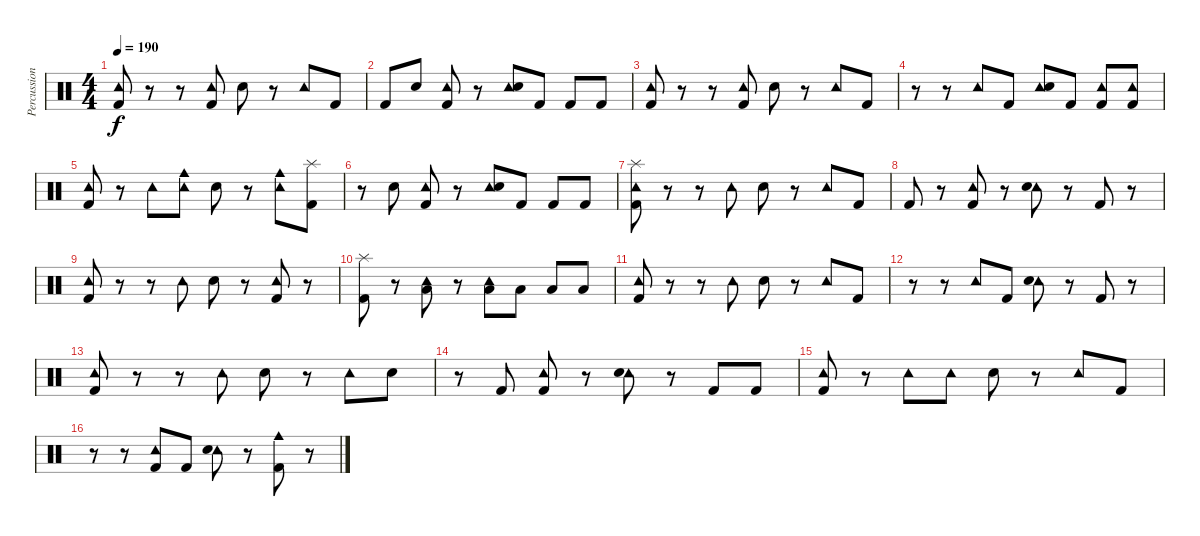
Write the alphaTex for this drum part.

\track ("Percussion" "Percussion") {instrument percussion}
\staff {score}
\articulation defaults
\ts (4 4)
\tempo 190
\clef neutral
\ks c
("Tambourine (hit)" "Kick (hit) 2").8{dy f} r.8 r.8 ("Tambourine (hit)" "Kick (hit) 2").8 "Electric Snare (hit)".8 r.8 "Tambourine (hit)".8 "Kick (hit) 2".8 |
"Kick (hit) 2".8 "Electric Snare (hit)".8 ("Tambourine (hit)" "Kick (hit) 2").8 r.8 ("Tambourine (hit)" "Electric Snare (hit)").8 "Kick (hit) 2".8 "Kick (hit) 2".8 "Kick (hit) 2".8 |
("Tambourine (hit)" "Kick (hit) 2").8 r.8 r.8 ("Tambourine (hit)" "Kick (hit) 2").8 "Electric Snare (hit)".8 r.8 "Tambourine (hit)".8 "Kick (hit) 2".8 |
r.8 r.8 "Tambourine (hit)".8 "Kick (hit) 2".8 ("Tambourine (hit)" "Electric Snare (hit)").8 "Kick (hit) 2".8 ("Tambourine (hit)" "Kick (hit) 2").8 ("Tambourine (hit)" "Kick (hit) 2").8 |
("Tambourine (hit)" "Kick (hit) 2").8 r.8 "Tambourine (hit)".8 ("Cowbell medium (hit)" "Tambourine (hit)").8 "Electric Snare (hit)".8 r.8 ("Cowbell medium (hit)" "Tambourine (hit)").8 ("Splash (hit)" "Kick (hit) 2").8 |
r.8 "Electric Snare (hit)".8 ("Tambourine (hit)" "Kick (hit) 2").8 r.8 ("Tambourine (hit)" "Electric Snare (hit)").8 "Kick (hit) 2".8 "Kick (hit) 2".8 "Kick (hit) 2".8 |
("Splash (hit)" "Tambourine (hit)" "Kick (hit) 2").8 r.8 r.8 "Tambourine (hit)".8 "Electric Snare (hit)".8 r.8 "Tambourine (hit)".8 "Kick (hit) 2".8 |
"Kick (hit) 2".8 r.8 ("Tambourine (hit)" "Kick (hit) 2").8 r.8 ("Tambourine (hit)" "Electric Snare (hit)").8 r.8 "Kick (hit) 2".8 r.8 |
("Tambourine (hit)" "Kick (hit) 2").8 r.8 r.8 "Tambourine (hit)".8 "Electric Snare (hit)".8 r.8 ("Tambourine (hit)" "Kick (hit) 2").8 r.8 |
("Splash (hit)" "Kick (hit) 2").8 r.8 ("Tambourine (hit)" "Low Floor Tom (hit)").8 r.8 ("Tambourine (hit)" "Low Tom (hit)").8 "Low Tom (hit)".8 "Low Floor Tom (hit)".8 "Low Floor Tom (hit)".8 |
("Tambourine (hit)" "Kick (hit) 2").8 r.8 r.8 "Tambourine (hit)".8 "Electric Snare (hit)".8 r.8 "Tambourine (hit)".8 "Kick (hit) 2".8 |
r.8 r.8 "Tambourine (hit)".8 "Kick (hit) 2".8 ("Tambourine (hit)" "Electric Snare (hit)").8 r.8 "Kick (hit) 2".8 r.8 |
("Tambourine (hit)" "Kick (hit) 2").8 r.8 r.8 "Tambourine (hit)".8 "Electric Snare (hit)".8 r.8 "Tambourine (hit)".8 "Electric Snare (hit)".8 |
r.8 "Kick (hit) 2".8 ("Tambourine (hit)" "Kick (hit) 2").8 r.8 ("Tambourine (hit)" "Electric Snare (hit)").8 r.8 "Kick (hit) 2".8 "Kick (hit) 2".8 |
("Tambourine (hit)" "Kick (hit) 2").8 r.8 "Tambourine (hit)".8 "Tambourine (hit)".8 "Electric Snare (hit)".8 r.8 "Tambourine (hit)".8 "Kick (hit) 2".8 |
r.8 r.8 ("Tambourine (hit)" "Kick (hit) 2").8 "Kick (hit) 2".8 ("Tambourine (hit)" "Electric Snare (hit)").8 r.8 ("Cowbell medium (hit)" "Kick (hit) 2").8 r.8
